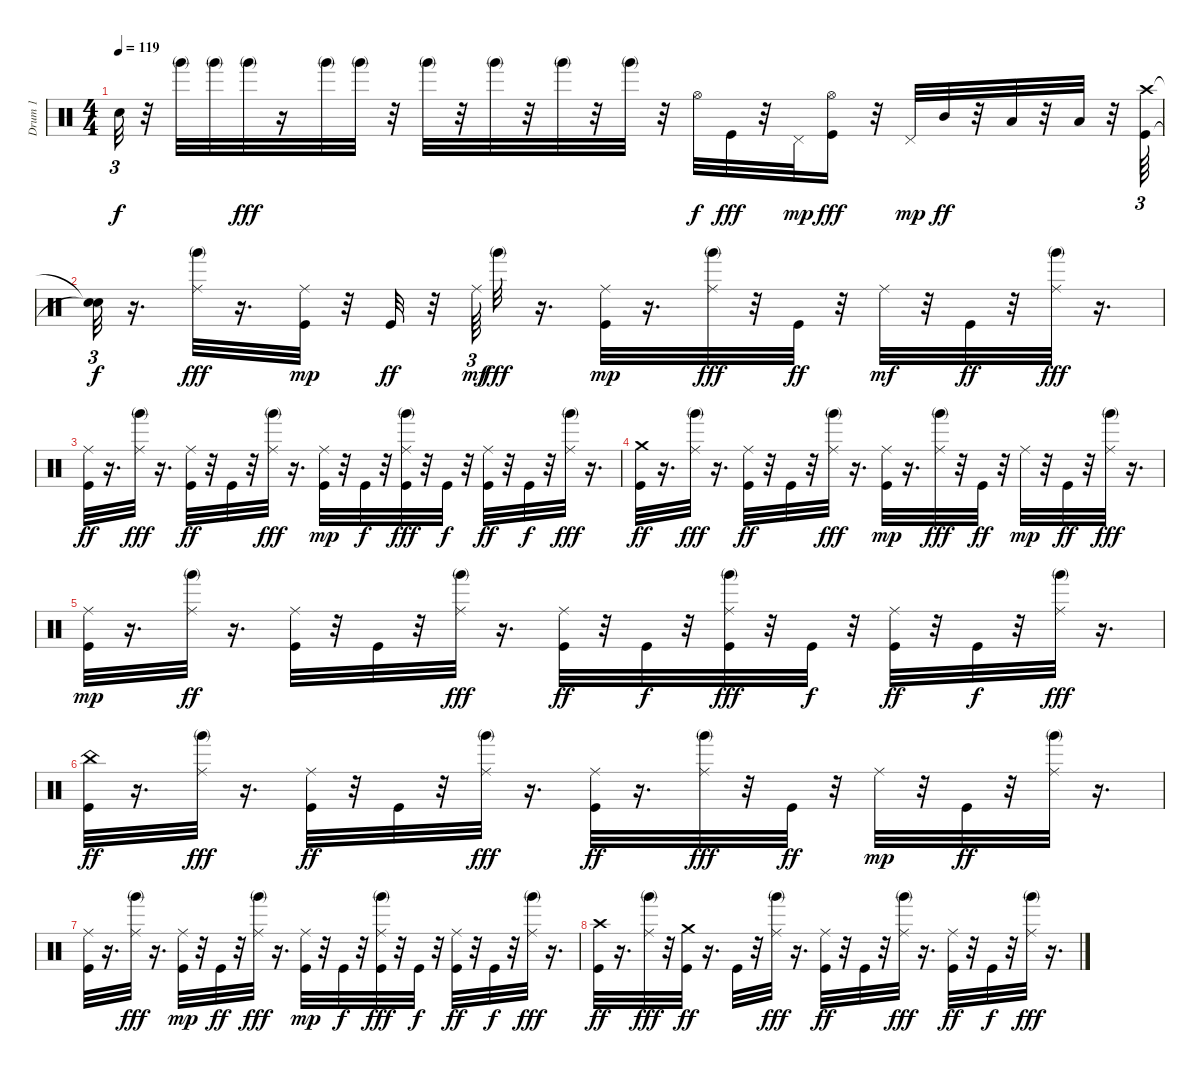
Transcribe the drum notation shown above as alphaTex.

\track ("Drum 1                          " "Drum 1    ") {instrument percussion}
\staff {score}
\articulation defaults
\ts (4 4)
\tempo 119
\clef neutral
\ks c "Snare (hit)"{t}.32{tu (3 2) dy f}
r.32 "Hand (mute) 2".32 "Hand (mute) 2".32 "Hand (mute) 2".32{dy fff} r.16 "Hand (mute) 2".32 "Hand (mute) 2".32 r.32 "Hand (mute) 2".32 r.32 "Hand (mute) 2".32 r.32 "Hand (mute) 2".32 r.32 "Hand (mute) 2".32 r.32 "Hi-Hat (open)".32{dy f} "Kick (hit)".32{dy fff} r.32 "Pedal Hi-Hat (hit)".32{dy mp} ("Hi-Hat (open)" "Kick (hit)").16{dy fff} r.32 "Pedal Hi-Hat (hit)".32{dy mp} "Mid Tom (hit)".32{dy ff} r.32 "Low Tom (hit)".32 r.32 "Low Floor Tom (hit)".32 r.32 ("Crash high (hit)" "Kick (hit)").64{tu (3 2)} |
("Snare (hit)"{t} "Snare (hit)"{t}).32{tu (3 2) dy f} r.16{d} ("Ride (middle)" "Hand (mute) 2").32{dy fff} r.16{d} ("Kick (hit)" "Ride (middle)").32{dy mp} r.32 "Kick (hit)".32{dy ff} r.32 "Ride (middle)".64{tu (3 2) dy mf} "Hand (mute) 2".32{dy fff} r.16{d} ("Kick (hit)" "Ride (middle)").32{dy mp} r.16{d} ("Ride (middle)" "Hand (mute) 2").32{dy fff} r.32 "Kick (hit)".32{dy ff} r.32 "Ride (middle)".32{dy mf} r.32 "Kick (hit)".32{dy ff} r.32 ("Ride (middle)" "Hand (mute) 2").32{dy fff} r.16{d} |
("Ride (middle)" "Kick (hit)").32{dy ff} r.16{d} ("Ride (middle)" "Hand (mute) 2").32{dy fff} r.16{d} ("Ride (middle)" "Kick (hit)").32{dy ff} r.32 "Kick (hit)".32 r.32 ("Ride (middle)" "Hand (mute) 2").32{dy fff} r.16{d} ("Kick (hit)" "Ride (middle)").32{dy mp} r.32 "Kick (hit)".32{dy f} r.32 ("Kick (hit)" "Ride (middle)" "Hand (mute) 2").32{dy fff} r.32 "Kick (hit)".32{dy f} r.32 ("Ride (middle)" "Kick (hit)").32{dy ff} r.32 "Kick (hit)".32{dy f} r.32 ("Ride (middle)" "Hand (mute) 2").32{dy fff} r.16{d} |
("Crash medium (hit)" "Kick (hit)").32{dy ff} r.16{d} ("Ride (middle)" "Hand (mute) 2").32{dy fff} r.16{d} ("Ride (middle)" "Kick (hit)").32{dy ff} r.32 "Kick (hit)".32 r.32 ("Ride (middle)" "Hand (mute) 2").32{dy fff} r.16{d} ("Kick (hit)" "Ride (middle)").32{dy mp} r.16{d} ("Ride (middle)" "Hand (mute) 2").32{dy fff} r.32 "Kick (hit)".32{dy ff} r.32 "Ride (middle)".32{dy mp} r.32 "Kick (hit)".32{dy ff} r.32 ("Ride (middle)" "Hand (mute) 2").32{dy fff} r.16{d} |
("Kick (hit)" "Ride (middle)").32{dy mp} r.16{d} ("Ride (middle)" "Hand (mute) 2").32{dy ff} r.16{d} ("Ride (middle)" "Kick (hit)").32 r.32 "Kick (hit)".32 r.32 ("Ride (middle)" "Hand (mute) 2").32{dy fff} r.16{d} ("Ride (middle)" "Kick (hit)").32{dy ff} r.32 "Kick (hit)".32{dy f} r.32 ("Kick (hit)" "Ride (middle)" "Hand (mute) 2").32{dy fff} r.32 "Kick (hit)".32{dy f} r.32 ("Ride (middle)" "Kick (hit)").32{dy ff} r.32 "Kick (hit)".32{dy f} r.32 ("Ride (middle)" "Hand (mute) 2").32{dy fff} r.16{d} |
("China (hit)" "Kick (hit)").32{dy ff} r.16{d} ("Ride (middle)" "Hand (mute) 2").32{dy fff} r.16{d} ("Ride (middle)" "Kick (hit)").32{dy ff} r.32 "Kick (hit)".32 r.32 ("Ride (middle)" "Hand (mute) 2").32{dy fff} r.16{d} ("Ride (middle)" "Kick (hit)").32{dy ff} r.16{d} ("Ride (middle)" "Hand (mute) 2").32{dy fff} r.32 "Kick (hit)".32{dy ff} r.32 "Ride (middle)".32{dy mp} r.32 "Kick (hit)".32{dy ff} r.32 ("Ride (middle)" "Hand (mute) 2").32 r.16{d} |
("Ride (middle)" "Kick (hit)").32 r.16{d} ("Ride (middle)" "Hand (mute) 2").32{dy fff} r.16{d} ("Kick (hit)" "Ride (middle)").32{dy mp} r.32 "Kick (hit)".32{dy ff} r.32 ("Ride (middle)" "Hand (mute) 2").32{dy fff} r.16{d} ("Kick (hit)" "Ride (middle)").32{dy mp} r.32 "Kick (hit)".32{dy f} r.32 ("Kick (hit)" "Ride (middle)" "Hand (mute) 2").32{dy fff} r.32 "Kick (hit)".32{dy f} r.32 ("Ride (middle)" "Kick (hit)").32{dy ff} r.32 "Kick (hit)".32{dy f} r.32 ("Ride (middle)" "Hand (mute) 2").32{dy fff} r.16{d} |
("Crash high (hit)" "Kick (hit)").32{dy ff} r.16{d} ("Ride (middle)" "Hand (mute) 2").32{dy fff} r.32 ("Crash medium (hit)" "Kick (hit)").32{dy ff} r.16{d} "Kick (hit)".32 r.32 ("Ride (middle)" "Hand (mute) 2").32{dy fff} r.16{d} ("Ride (middle)" "Kick (hit)").32{dy ff} r.32 "Kick (hit)".32 r.32 ("Ride (middle)" "Hand (mute) 2").32{dy fff} r.16{d} ("Ride (middle)" "Kick (hit)").32{dy ff} r.32 "Kick (hit)".32{dy f} r.32 ("Ride (middle)" "Hand (mute) 2").32{dy fff} r.16{d}
